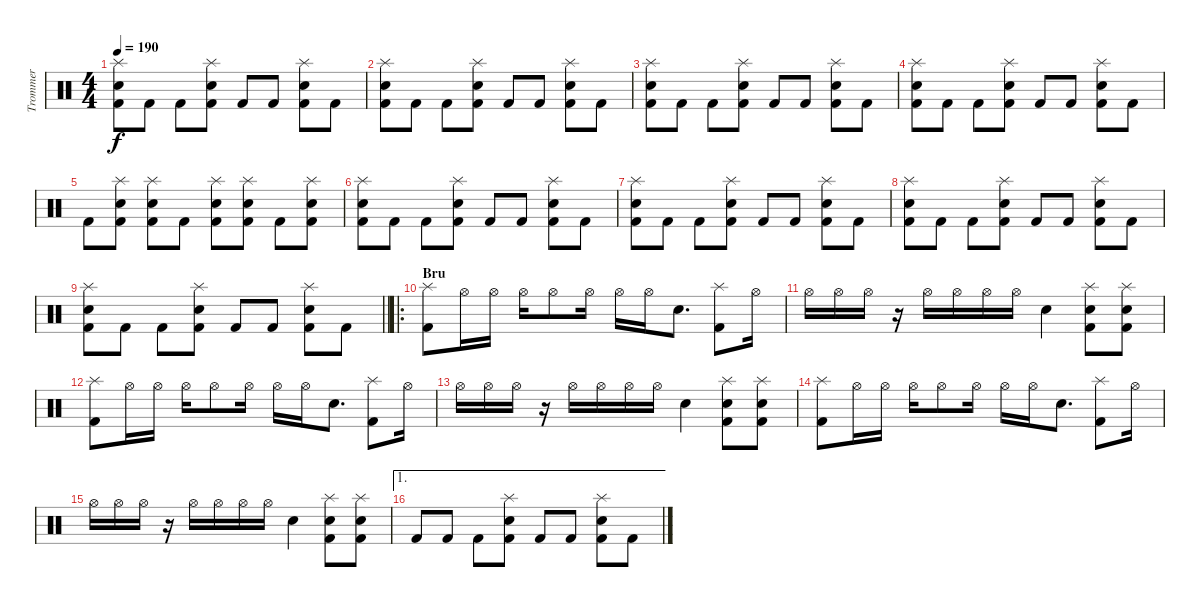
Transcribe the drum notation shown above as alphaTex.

\track ("Trommer" "Trommer") {instrument percussion}
\staff {score}
\articulation defaults
\ts (4 4)
\tempo 190
\clef neutral
\ks c
("Splash (hit)" "Snare (hit) 2" "Kick (hit) 2").8{dy f} "Kick (hit) 2".8 "Kick (hit) 2".8 ("Splash (hit)" "Snare (hit) 2" "Kick (hit) 2").8 "Kick (hit) 2".8 "Kick (hit) 2".8 ("Splash (hit)" "Snare (hit) 2" "Kick (hit) 2").8 "Kick (hit) 2".8 |
("Splash (hit)" "Snare (hit) 2" "Kick (hit) 2").8 "Kick (hit) 2".8 "Kick (hit) 2".8 ("Splash (hit)" "Snare (hit) 2" "Kick (hit) 2").8 "Kick (hit) 2".8 "Kick (hit) 2".8 ("Splash (hit)" "Snare (hit) 2" "Kick (hit) 2").8 "Kick (hit) 2".8 |
("Splash (hit)" "Snare (hit) 2" "Kick (hit) 2").8 "Kick (hit) 2".8 "Kick (hit) 2".8 ("Splash (hit)" "Snare (hit) 2" "Kick (hit) 2").8 "Kick (hit) 2".8 "Kick (hit) 2".8 ("Splash (hit)" "Snare (hit) 2" "Kick (hit) 2").8 "Kick (hit) 2".8 |
("Splash (hit)" "Snare (hit) 2" "Kick (hit) 2").8 "Kick (hit) 2".8 "Kick (hit) 2".8 ("Splash (hit)" "Snare (hit) 2" "Kick (hit) 2").8 "Kick (hit) 2".8 "Kick (hit) 2".8 ("Splash (hit)" "Snare (hit) 2" "Kick (hit) 2").8 "Kick (hit) 2".8 |
"Kick (hit) 2".8 ("Splash (hit)" "Snare (hit) 2" "Kick (hit) 2").8 ("Splash (hit)" "Snare (hit) 2" "Kick (hit) 2").8 "Kick (hit) 2".8 ("Splash (hit)" "Snare (hit) 2" "Kick (hit) 2").8 ("Splash (hit)" "Snare (hit) 2" "Kick (hit) 2").8 "Kick (hit) 2".8 ("Splash (hit)" "Snare (hit) 2" "Kick (hit) 2").8 |
("Splash (hit)" "Snare (hit) 2" "Kick (hit) 2").8 "Kick (hit) 2".8 "Kick (hit) 2".8 ("Splash (hit)" "Snare (hit) 2" "Kick (hit) 2").8 "Kick (hit) 2".8 "Kick (hit) 2".8 ("Splash (hit)" "Snare (hit) 2" "Kick (hit) 2").8 "Kick (hit) 2".8 |
("Splash (hit)" "Snare (hit) 2" "Kick (hit) 2").8 "Kick (hit) 2".8 "Kick (hit) 2".8 ("Splash (hit)" "Snare (hit) 2" "Kick (hit) 2").8 "Kick (hit) 2".8 "Kick (hit) 2".8 ("Splash (hit)" "Snare (hit) 2" "Kick (hit) 2").8 "Kick (hit) 2".8 |
("Splash (hit)" "Snare (hit) 2" "Kick (hit) 2").8 "Kick (hit) 2".8 "Kick (hit) 2".8 ("Splash (hit)" "Snare (hit) 2" "Kick (hit) 2").8 "Kick (hit) 2".8 "Kick (hit) 2".8 ("Splash (hit)" "Snare (hit) 2" "Kick (hit) 2").8 "Kick (hit) 2".8 |
\barLineRight lightlight
("Splash (hit)" "Snare (hit) 2" "Kick (hit) 2").8 "Kick (hit) 2".8 "Kick (hit) 2".8 ("Splash (hit)" "Snare (hit) 2" "Kick (hit) 2").8 "Kick (hit) 2".8 "Kick (hit) 2".8 ("Splash (hit)" "Snare (hit) 2" "Kick (hit) 2").8 "Kick (hit) 2".8 |
\ro
\section ("" "Bru")
("Splash (hit)" "Kick (hit) 2").8 "Hi-Hat (open)".16 "Hi-Hat (open)".16 "Hi-Hat (open)".16 "Hi-Hat (open)".8 "Hi-Hat (open)".16 "Hi-Hat (open)".16 "Hi-Hat (open)".16 "Snare (hit) 2".8{d} ("Splash (hit)" "Kick (hit) 2").8 "Hi-Hat (open)".16 |
"Hi-Hat (open)".16 "Hi-Hat (open)".16 "Hi-Hat (open)".16 r.16 "Hi-Hat (open)".16 "Hi-Hat (open)".16 "Hi-Hat (open)".16 "Hi-Hat (open)".16 "Snare (hit) 2".4 ("Splash (hit)" "Snare (hit) 2" "Kick (hit) 2").8 ("Splash (hit)" "Snare (hit) 2" "Kick (hit) 2").8 |
("Splash (hit)" "Kick (hit) 2").8 "Hi-Hat (open)".16 "Hi-Hat (open)".16 "Hi-Hat (open)".16 "Hi-Hat (open)".8 "Hi-Hat (open)".16 "Hi-Hat (open)".16 "Hi-Hat (open)".16 "Snare (hit) 2".8{d} ("Splash (hit)" "Kick (hit) 2").8 "Hi-Hat (open)".16 |
"Hi-Hat (open)".16 "Hi-Hat (open)".16 "Hi-Hat (open)".16 r.16 "Hi-Hat (open)".16 "Hi-Hat (open)".16 "Hi-Hat (open)".16 "Hi-Hat (open)".16 "Snare (hit) 2".4 ("Splash (hit)" "Snare (hit) 2" "Kick (hit) 2").8 ("Splash (hit)" "Snare (hit) 2" "Kick (hit) 2").8 |
("Splash (hit)" "Kick (hit) 2").8 "Hi-Hat (open)".16 "Hi-Hat (open)".16 "Hi-Hat (open)".16 "Hi-Hat (open)".8 "Hi-Hat (open)".16 "Hi-Hat (open)".16 "Hi-Hat (open)".16 "Snare (hit) 2".8{d} ("Splash (hit)" "Kick (hit) 2").8 "Hi-Hat (open)".16 |
"Hi-Hat (open)".16 "Hi-Hat (open)".16 "Hi-Hat (open)".16 r.16 "Hi-Hat (open)".16 "Hi-Hat (open)".16 "Hi-Hat (open)".16 "Hi-Hat (open)".16 "Snare (hit) 2".4 ("Splash (hit)" "Snare (hit) 2" "Kick (hit) 2").8 ("Splash (hit)" "Snare (hit) 2" "Kick (hit) 2").8 |
\ae 1 "Kick (hit) 2".8 "Kick (hit) 2".8 "Kick (hit) 2".8
("Splash (hit)" "Snare (hit) 2" "Kick (hit) 2").8 "Kick (hit) 2".8 "Kick (hit) 2".8 ("Splash (hit)" "Snare (hit) 2" "Kick (hit) 2").8 "Kick (hit) 2".8
